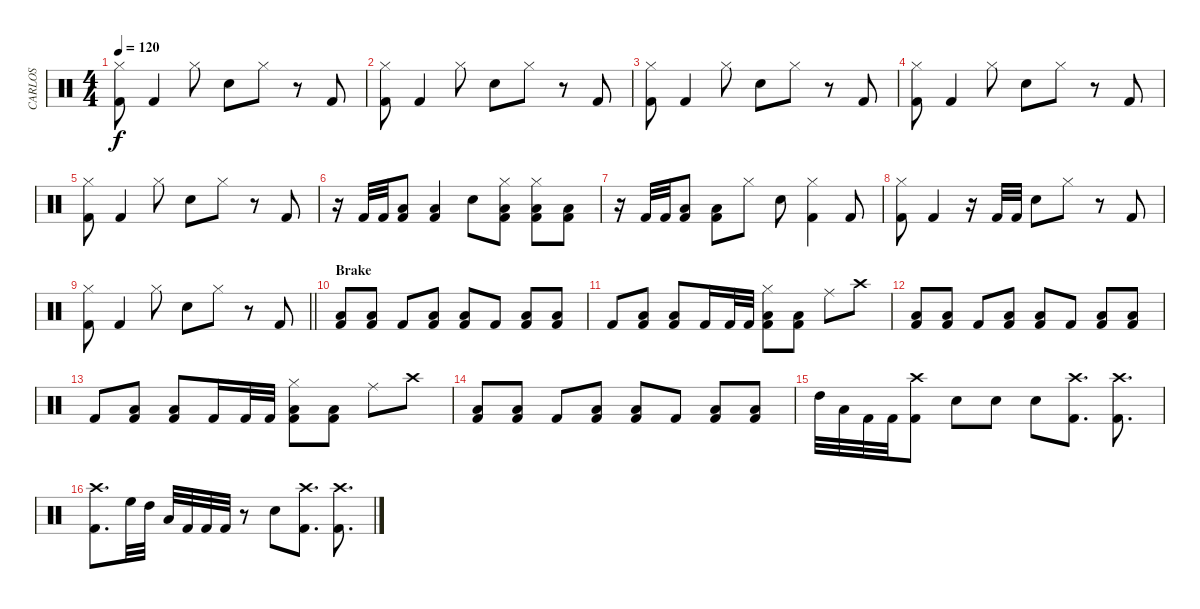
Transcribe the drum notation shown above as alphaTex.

\track ("CARLOS" "CARLOS") {instrument percussion}
\staff {score}
\articulation defaults
\ts (4 4)
\tempo 120
\clef neutral
\ks c
("Hi-Hat (closed)" "Kick (hit) 2").8{dy f} "Kick (hit) 2".4 "Hi-Hat (closed)".8 "Electric Snare (hit)".8 "Hi-Hat (closed)".8 r.8 "Kick (hit) 2".8 |
("Hi-Hat (closed)" "Kick (hit) 2").8 "Kick (hit) 2".4 "Hi-Hat (closed)".8 "Electric Snare (hit)".8 "Hi-Hat (closed)".8 r.8 "Kick (hit) 2".8 |
("Hi-Hat (closed)" "Kick (hit) 2").8 "Kick (hit) 2".4 "Hi-Hat (closed)".8 "Electric Snare (hit)".8 "Hi-Hat (closed)".8 r.8 "Kick (hit) 2".8 |
("Hi-Hat (closed)" "Kick (hit) 2").8 "Kick (hit) 2".4 "Hi-Hat (closed)".8 "Electric Snare (hit)".8 "Hi-Hat (closed)".8 r.8 "Kick (hit) 2".8 |
("Hi-Hat (closed)" "Kick (hit) 2").8 "Kick (hit) 2".4 "Hi-Hat (closed)".8 "Electric Snare (hit)".8 "Hi-Hat (closed)".8 r.8 "Kick (hit) 2".8 |
r.16 "Kick (hit) 2".32 "Kick (hit) 2".32 ("Low Tom (hit)" "Kick (hit) 2").8 ("Low Tom (hit)" "Kick (hit) 2").4 "Electric Snare (hit)".8 ("Hi-Hat (closed)" "Low Tom (hit)" "Kick (hit) 2").8 ("Hi-Hat (closed)" "Low Tom (hit)" "Kick (hit) 2").8 ("Low Tom (hit)" "Kick (hit) 2").8 |
r.16 "Kick (hit) 2".32 "Kick (hit) 2".32 ("Low Tom (hit)" "Kick (hit) 2").8 ("Kick (hit) 2" "Low Tom (hit)").8 "Hi-Hat (closed)".8 "Electric Snare (hit)".8 ("Hi-Hat (closed)" "Kick (hit) 2").4 "Kick (hit) 2".8 |
("Hi-Hat (closed)" "Kick (hit) 2").8 "Kick (hit) 2".4 r.16 "Kick (hit) 2".32 "Kick (hit) 2".32 "Electric Snare (hit)".8 "Hi-Hat (closed)".8 r.8 "Kick (hit) 2".8 |
\barLineRight lightlight
("Hi-Hat (closed)" "Kick (hit) 2").8 "Kick (hit) 2".4 "Hi-Hat (closed)".8 "Electric Snare (hit)".8 "Hi-Hat (closed)".8 r.8 "Kick (hit) 2".8 |
\section ("" "Brake")
("Kick (hit) 2" "Low Tom (hit)").8 ("Kick (hit) 2" "Low Tom (hit)").8 "Kick (hit) 2".8 ("Low Tom (hit)" "Kick (hit) 2").8 ("Low Tom (hit)" "Kick (hit) 2").8 "Kick (hit) 2".8 ("Low Tom (hit)" "Kick (hit) 2").8 ("Low Tom (hit)" "Kick (hit) 2").8 |
"Kick (hit) 2".8 ("Kick (hit) 2" "Low Tom (hit)").8 ("Kick (hit) 2" "Low Tom (hit)").8 "Kick (hit) 2".16 "Kick (hit) 2".32 "Kick (hit) 2".32 ("Low Tom (hit)" "Kick (hit) 2" "Hi-Hat (closed)").8 ("Low Tom (hit)" "Kick (hit) 2").8 "Ride (middle)".8 "Crash high (hit)".8 |
("Kick (hit) 2" "Low Tom (hit)").8 ("Kick (hit) 2" "Low Tom (hit)").8 "Kick (hit) 2".8 ("Low Tom (hit)" "Kick (hit) 2").8 ("Low Tom (hit)" "Kick (hit) 2").8 "Kick (hit) 2".8 ("Low Tom (hit)" "Kick (hit) 2").8 ("Low Tom (hit)" "Kick (hit) 2").8 |
"Kick (hit) 2".8 ("Kick (hit) 2" "Low Tom (hit)").8 ("Kick (hit) 2" "Low Tom (hit)").8 "Kick (hit) 2".16 "Kick (hit) 2".32 "Kick (hit) 2".32 ("Low Tom (hit)" "Kick (hit) 2" "Hi-Hat (closed)").8 ("Low Tom (hit)" "Kick (hit) 2").8 "Ride (middle)".8 "Crash high (hit)".8 |
("Kick (hit) 2" "Low Tom (hit)").8 ("Kick (hit) 2" "Low Tom (hit)").8 "Kick (hit) 2".8 ("Low Tom (hit)" "Kick (hit) 2").8 ("Low Tom (hit)" "Kick (hit) 2").8 "Kick (hit) 2".8 ("Low Tom (hit)" "Kick (hit) 2").8 ("Low Tom (hit)" "Kick (hit) 2").8 |
"High Tom (hit)".32 "Low Tom (hit)".32 "Kick (hit) 2".32 "Kick (hit) 2".32 ("Kick (hit) 2" "Crash high (hit)").8 "Electric Snare (hit)".8 "Electric Snare (hit)".8 "Electric Snare (hit)".8 ("Kick (hit) 2" "Crash high (hit)").8{d} ("Kick (hit) 2" "Crash high (hit)").8{d} |
("Kick (hit) 2" "Crash high (hit)").8{d} "High Floor Tom (hit)".32 "High Tom (hit)".32 "Low Tom (hit)".32 "Kick (hit) 2".32 "Kick (hit) 2".32 "Kick (hit) 2".32 r.8 "Electric Snare (hit)".8 ("Kick (hit) 2" "Crash high (hit)").8{d} ("Kick (hit) 2" "Crash high (hit)").8{d}
